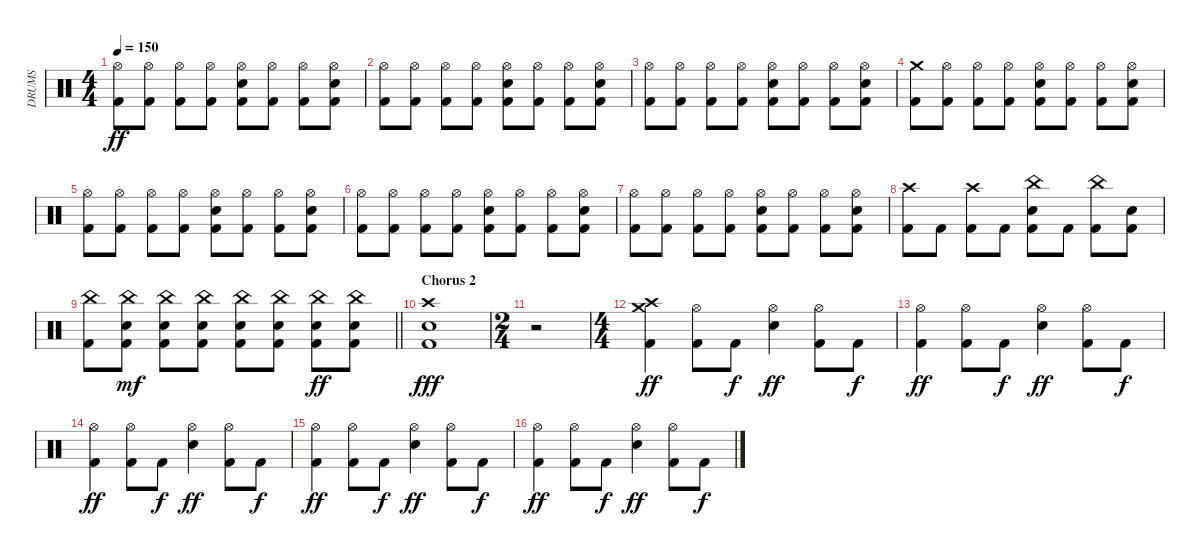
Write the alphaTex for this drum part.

\track ("DRUMS" "DRUMS") {instrument percussion}
\staff {score}
\articulation defaults
\ts (4 4)
\tempo 150
\clef neutral
\ks c
("Hi-Hat (open)" "Kick (hit) 2").8{dy ff} ("Hi-Hat (open)" "Kick (hit) 2").8 ("Hi-Hat (open)" "Kick (hit) 2").8 ("Hi-Hat (open)" "Kick (hit) 2").8 ("Hi-Hat (open)" "Snare (hit) 2" "Kick (hit) 2").8 ("Hi-Hat (open)" "Kick (hit) 2").8 ("Hi-Hat (open)" "Kick (hit) 2").8 ("Hi-Hat (open)" "Snare (hit) 2" "Kick (hit) 2").8 |
("Hi-Hat (open)" "Kick (hit) 2").8 ("Hi-Hat (open)" "Kick (hit) 2").8 ("Hi-Hat (open)" "Kick (hit) 2").8 ("Hi-Hat (open)" "Kick (hit) 2").8 ("Hi-Hat (open)" "Snare (hit) 2" "Kick (hit) 2").8 ("Hi-Hat (open)" "Kick (hit) 2").8 ("Hi-Hat (open)" "Kick (hit) 2").8 ("Hi-Hat (open)" "Snare (hit) 2" "Kick (hit) 2").8 |
("Hi-Hat (open)" "Kick (hit) 2").8 ("Hi-Hat (open)" "Kick (hit) 2").8 ("Hi-Hat (open)" "Kick (hit) 2").8 ("Hi-Hat (open)" "Kick (hit) 2").8 ("Hi-Hat (open)" "Snare (hit) 2" "Kick (hit) 2").8 ("Hi-Hat (open)" "Kick (hit) 2").8 ("Hi-Hat (open)" "Kick (hit) 2").8 ("Hi-Hat (open)" "Snare (hit) 2" "Kick (hit) 2").8 |
("Crash medium (hit)" "Kick (hit) 2").8 ("Hi-Hat (open)" "Kick (hit) 2").8 ("Hi-Hat (open)" "Kick (hit) 2").8 ("Hi-Hat (open)" "Kick (hit) 2").8 ("Hi-Hat (open)" "Snare (hit) 2" "Kick (hit) 2").8 ("Hi-Hat (open)" "Kick (hit) 2").8 ("Hi-Hat (open)" "Kick (hit) 2").8 ("Hi-Hat (open)" "Snare (hit) 2" "Kick (hit) 2").8 |
("Hi-Hat (open)" "Kick (hit) 2").8 ("Hi-Hat (open)" "Kick (hit) 2").8 ("Hi-Hat (open)" "Kick (hit) 2").8 ("Hi-Hat (open)" "Kick (hit) 2").8 ("Hi-Hat (open)" "Snare (hit) 2" "Kick (hit) 2").8 ("Hi-Hat (open)" "Kick (hit) 2").8 ("Hi-Hat (open)" "Kick (hit) 2").8 ("Hi-Hat (open)" "Snare (hit) 2" "Kick (hit) 2").8 |
("Hi-Hat (open)" "Kick (hit) 2").8 ("Hi-Hat (open)" "Kick (hit) 2").8 ("Hi-Hat (open)" "Kick (hit) 2").8 ("Hi-Hat (open)" "Kick (hit) 2").8 ("Hi-Hat (open)" "Snare (hit) 2" "Kick (hit) 2").8 ("Hi-Hat (open)" "Kick (hit) 2").8 ("Hi-Hat (open)" "Kick (hit) 2").8 ("Hi-Hat (open)" "Snare (hit) 2" "Kick (hit) 2").8 |
("Hi-Hat (open)" "Kick (hit) 2").8 ("Hi-Hat (open)" "Kick (hit) 2").8 ("Hi-Hat (open)" "Kick (hit) 2").8 ("Hi-Hat (open)" "Kick (hit) 2").8 ("Hi-Hat (open)" "Snare (hit) 2" "Kick (hit) 2").8 ("Hi-Hat (open)" "Kick (hit) 2").8 ("Hi-Hat (open)" "Kick (hit) 2").8 ("Hi-Hat (open)" "Snare (hit) 2" "Kick (hit) 2").8 |
("Crash high (hit)" "Kick (hit) 2").8 "Kick (hit) 2".8 ("Crash high (hit)" "Kick (hit) 2").8 "Kick (hit) 2".8 ("China (hit)" "Snare (hit) 2" "Kick (hit) 2").8 "Kick (hit) 2".8 ("China (hit)" "Kick (hit) 2").8 ("Snare (hit) 2" "Kick (hit) 2").8 |
\barLineRight lightlight
("China (hit)" "Kick (hit) 2").8 ("China (hit)" "Snare (hit) 2" "Kick (hit) 2").8{dy mf} ("China (hit)" "Snare (hit) 2" "Kick (hit) 2").8 ("China (hit)" "Snare (hit) 2" "Kick (hit) 2").8 ("China (hit)" "Snare (hit) 2" "Kick (hit) 2").8 ("China (hit)" "Snare (hit) 2" "Kick (hit) 2").8 ("China (hit)" "Snare (hit) 2" "Kick (hit) 2").8{dy ff} ("China (hit)" "Snare (hit) 2" "Kick (hit) 2").8 |
\section ("" "Chorus 2")
("Crash high (hit)" "Snare (hit) 2" "Kick (hit) 2").1{dy fff} |
\ts (2 4)
r.2 |
\ts (4 4)
("Crash medium (hit)" "Crash high (hit)" "Kick (hit) 2").4{dy ff} ("Hi-Hat (open)" "Kick (hit) 2").8 "Kick (hit) 2".8{dy f} ("Hi-Hat (open)" "Snare (hit) 2").4{dy ff} ("Hi-Hat (open)" "Kick (hit) 2").8 "Kick (hit) 2".8{dy f} |
("Hi-Hat (open)" "Kick (hit) 2").4{dy ff} ("Hi-Hat (open)" "Kick (hit) 2").8 "Kick (hit) 2".8{dy f} ("Hi-Hat (open)" "Snare (hit) 2").4{dy ff} ("Hi-Hat (open)" "Kick (hit) 2").8 "Kick (hit) 2".8{dy f} |
("Hi-Hat (open)" "Kick (hit) 2").4{dy ff} ("Hi-Hat (open)" "Kick (hit) 2").8 "Kick (hit) 2".8{dy f} ("Hi-Hat (open)" "Snare (hit) 2").4{dy ff} ("Hi-Hat (open)" "Kick (hit) 2").8 "Kick (hit) 2".8{dy f} |
("Hi-Hat (open)" "Kick (hit) 2").4{dy ff} ("Hi-Hat (open)" "Kick (hit) 2").8 "Kick (hit) 2".8{dy f} ("Hi-Hat (open)" "Snare (hit) 2").4{dy ff} ("Hi-Hat (open)" "Kick (hit) 2").8 "Kick (hit) 2".8{dy f} |
("Hi-Hat (open)" "Kick (hit) 2").4{dy ff} ("Hi-Hat (open)" "Kick (hit) 2").8 "Kick (hit) 2".8{dy f} ("Hi-Hat (open)" "Snare (hit) 2").4{dy ff} ("Hi-Hat (open)" "Kick (hit) 2").8 "Kick (hit) 2".8{dy f}
